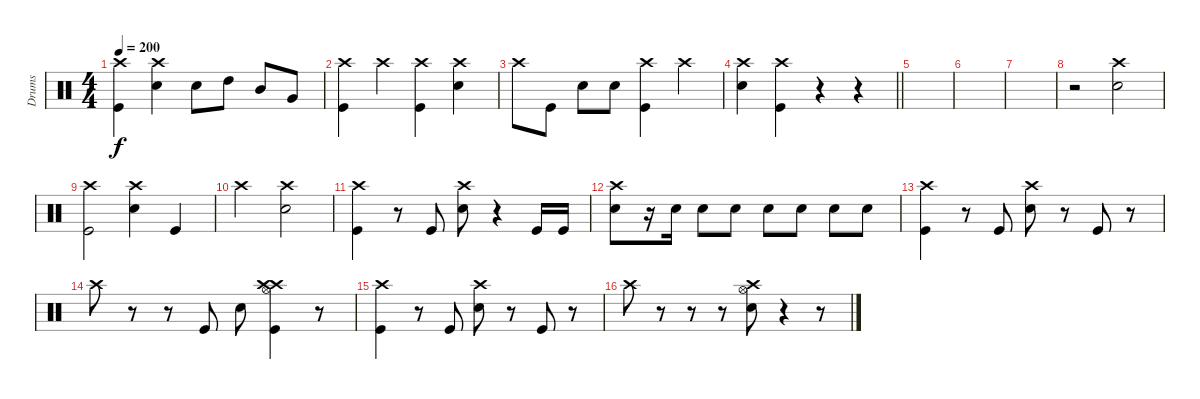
\track ("Drums" "Drums") {instrument percussion}
\staff {score}
\articulation defaults
\ts (4 4)
\tempo 200
\clef neutral
\ks c
("Crash high (hit)" "Kick (hit)").4{dy f} ("Crash high (hit)" "Snare (hit) 2").4 "Snare (hit) 2".8 "High Tom (hit)".8 "Mid Tom (hit)".8 "Very Low Tom (hit)".8 |
("Crash high (hit)" "Kick (hit)").4 "Crash high (hit)".4 ("Crash high (hit)" "Kick (hit)").4 ("Crash high (hit)" "Snare (hit) 2").4 |
"Crash high (hit)".8 "Kick (hit)".8 "Snare (hit) 2".8 "Snare (hit) 2".8 ("Crash high (hit)" "Kick (hit)").4 "Crash high (hit)".4 |
\barLineRight lightlight
("Crash high (hit)" "Snare (hit) 2").4 ("Crash high (hit)" "Kick (hit)").4 r.4 r.4 |
|
|
|
r.2 ("Crash high (hit)" "Snare (hit) 2").2 |
("Crash high (hit)" "Kick (hit)").2 ("Crash high (hit)" "Snare (hit) 2").4 "Kick (hit)".4 |
"Crash high (hit)".2 ("Crash high (hit)" "Snare (hit) 2").2 |
("Crash high (hit)" "Kick (hit)").4 r.8 "Kick (hit)".8 ("Crash high (hit)" "Snare (hit) 2").8 r.4 "Kick (hit)".16 "Kick (hit)".16 |
("Crash high (hit)" "Snare (hit) 2").8 r.16 "Snare (hit) 2".16 "Snare (hit) 2".8 "Snare (hit) 2".8 "Snare (hit) 2".8 "Snare (hit) 2".8 "Snare (hit) 2".8 "Snare (hit) 2".8 |
("Crash high (hit)" "Kick (hit)").4 r.8 "Kick (hit)".8 ("Crash high (hit)" "Snare (hit) 2").8 r.8 "Kick (hit)".8 r.8 |
"Crash high (hit)".8 r.8 r.8 "Kick (hit)".8 "Snare (hit) 2".8 ("Crash high (hit)" "Hi-Hat (open)" "Crash high (hit)" "Kick (hit)").4 r.8 |
("Crash high (hit)" "Kick (hit)").4 r.8 "Kick (hit)".8 ("Crash high (hit)" "Snare (hit) 2").8 r.8 "Kick (hit)".8 r.8 |
"Crash high (hit)".8 r.8 r.8 r.8 ("Crash high (hit)" "Snare (hit) 2" "Hi-Hat (open)").8 r.4 r.8
